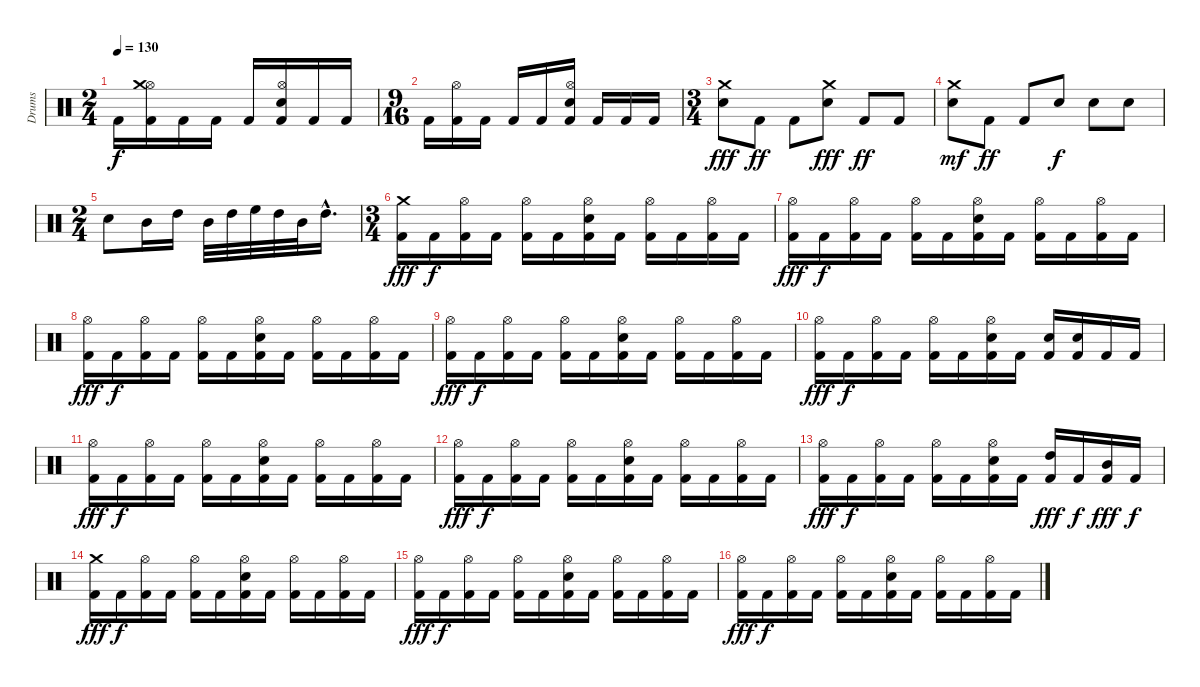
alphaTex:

\track ("Drums" "Drums") {instrument percussion}
\staff {score}
\articulation defaults
\ts (2 4)
\tempo 130
\clef neutral
\ks c "Kick (hit) 2".16{dy f}
("Kick (hit) 2" "Hi-Hat (open)" "Crash medium (hit)").16 "Kick (hit) 2".16 "Kick (hit) 2".16 "Kick (hit) 2".16 ("Kick (hit) 2" "Electric Snare (hit)" "Hi-Hat (open)").16 "Kick (hit) 2".16 "Kick (hit) 2".16 |
\ts (9 16)
"Kick (hit) 2".16 ("Kick (hit) 2" "Hi-Hat (open)").16 "Kick (hit) 2".16 "Kick (hit) 2".16 "Kick (hit) 2".16 ("Kick (hit) 2" "Electric Snare (hit)" "Hi-Hat (open)").16 "Kick (hit) 2".16 "Kick (hit) 2".16 "Kick (hit) 2".16 |
\ts (3 4)
("Crash medium (hit)" "Electric Snare (hit)").8{dy fff} "Kick (hit) 2".8{dy ff} "Kick (hit) 2".8 ("Electric Snare (hit)" "Crash medium (hit)").8{dy fff} "Kick (hit) 2".8{dy ff} "Kick (hit) 2".8 |
("Electric Snare (hit)" "Crash medium (hit)").8{dy mf} "Kick (hit) 2".8{dy ff} "Kick (hit) 2".8 "Electric Snare (hit)".8{dy f} "Electric Snare (hit)".8 "Electric Snare (hit)".8 |
\ts (2 4)
"Electric Snare (hit)".8 "Mid Tom (hit)".16 "High Tom (hit)".16 "Mid Tom (hit)".32 "High Tom (hit)".32 "High Floor Tom (hit)".32 "High Tom (hit)".32 "Mid Tom (hit)".32 "High Tom (hit)"{hac}.16{d} |
\ts (3 4)
("Kick (hit) 2" "Crash medium (hit)").16{dy fff} "Kick (hit) 2".16{dy f} ("Kick (hit) 2" "Hi-Hat (open)").16 "Kick (hit) 2".16 ("Kick (hit) 2" "Hi-Hat (open)").16 "Kick (hit) 2".16 ("Kick (hit) 2" "Electric Snare (hit)" "Hi-Hat (open)").16 "Kick (hit) 2".16 ("Kick (hit) 2" "Hi-Hat (open)").16 "Kick (hit) 2".16 ("Kick (hit) 2" "Hi-Hat (open)").16 "Kick (hit) 2".16 |
("Kick (hit) 2" "Hi-Hat (open)").16{dy fff} "Kick (hit) 2".16{dy f} ("Kick (hit) 2" "Hi-Hat (open)").16 "Kick (hit) 2".16 ("Kick (hit) 2" "Hi-Hat (open)").16 "Kick (hit) 2".16 ("Kick (hit) 2" "Electric Snare (hit)" "Hi-Hat (open)").16 "Kick (hit) 2".16 ("Kick (hit) 2" "Hi-Hat (open)").16 "Kick (hit) 2".16 ("Kick (hit) 2" "Hi-Hat (open)").16 "Kick (hit) 2".16 |
("Kick (hit) 2" "Hi-Hat (open)").16{dy fff} "Kick (hit) 2".16{dy f} ("Kick (hit) 2" "Hi-Hat (open)").16 "Kick (hit) 2".16 ("Kick (hit) 2" "Hi-Hat (open)").16 "Kick (hit) 2".16 ("Kick (hit) 2" "Electric Snare (hit)" "Hi-Hat (open)").16 "Kick (hit) 2".16 ("Kick (hit) 2" "Hi-Hat (open)").16 "Kick (hit) 2".16 ("Kick (hit) 2" "Hi-Hat (open)").16 "Kick (hit) 2".16 |
("Kick (hit) 2" "Hi-Hat (open)").16{dy fff} "Kick (hit) 2".16{dy f} ("Kick (hit) 2" "Hi-Hat (open)").16 "Kick (hit) 2".16 ("Kick (hit) 2" "Hi-Hat (open)").16 "Kick (hit) 2".16 ("Kick (hit) 2" "Electric Snare (hit)" "Hi-Hat (open)").16 "Kick (hit) 2".16 ("Kick (hit) 2" "Hi-Hat (open)").16 "Kick (hit) 2".16 ("Kick (hit) 2" "Hi-Hat (open)").16 "Kick (hit) 2".16 |
("Kick (hit) 2" "Hi-Hat (open)").16{dy fff} "Kick (hit) 2".16{dy f} ("Kick (hit) 2" "Hi-Hat (open)").16 "Kick (hit) 2".16 ("Kick (hit) 2" "Hi-Hat (open)").16 "Kick (hit) 2".16 ("Kick (hit) 2" "Electric Snare (hit)" "Hi-Hat (open)").16 "Kick (hit) 2".16 ("Kick (hit) 2" "Electric Snare (hit)").16 ("Kick (hit) 2" "Electric Snare (hit)").16 "Kick (hit) 2".16 "Kick (hit) 2".16 |
("Kick (hit) 2" "Hi-Hat (open)").16{dy fff} "Kick (hit) 2".16{dy f} ("Kick (hit) 2" "Hi-Hat (open)").16 "Kick (hit) 2".16 ("Kick (hit) 2" "Hi-Hat (open)").16 "Kick (hit) 2".16 ("Kick (hit) 2" "Electric Snare (hit)" "Hi-Hat (open)").16 "Kick (hit) 2".16 ("Kick (hit) 2" "Hi-Hat (open)").16 "Kick (hit) 2".16 ("Kick (hit) 2" "Hi-Hat (open)").16 "Kick (hit) 2".16 |
("Kick (hit) 2" "Hi-Hat (open)").16{dy fff} "Kick (hit) 2".16{dy f} ("Kick (hit) 2" "Hi-Hat (open)").16 "Kick (hit) 2".16 ("Kick (hit) 2" "Hi-Hat (open)").16 "Kick (hit) 2".16 ("Kick (hit) 2" "Electric Snare (hit)" "Hi-Hat (open)").16 "Kick (hit) 2".16 ("Kick (hit) 2" "Hi-Hat (open)").16 "Kick (hit) 2".16 ("Kick (hit) 2" "Hi-Hat (open)").16 "Kick (hit) 2".16 |
("Kick (hit) 2" "Hi-Hat (open)").16{dy fff} "Kick (hit) 2".16{dy f} ("Kick (hit) 2" "Hi-Hat (open)").16 "Kick (hit) 2".16 ("Kick (hit) 2" "Hi-Hat (open)").16 "Kick (hit) 2".16 ("Kick (hit) 2" "Electric Snare (hit)" "Hi-Hat (open)").16 "Kick (hit) 2".16 ("Kick (hit) 2" "High Tom (hit)").16{dy fff} "Kick (hit) 2".16{dy f} ("Kick (hit) 2" "Mid Tom (hit)").16{dy fff} "Kick (hit) 2".16{dy f} |
("Kick (hit) 2" "Crash medium (hit)").16{dy fff} "Kick (hit) 2".16{dy f} ("Kick (hit) 2" "Hi-Hat (open)").16 "Kick (hit) 2".16 ("Kick (hit) 2" "Hi-Hat (open)").16 "Kick (hit) 2".16 ("Kick (hit) 2" "Electric Snare (hit)" "Hi-Hat (open)").16 "Kick (hit) 2".16 ("Kick (hit) 2" "Hi-Hat (open)").16 "Kick (hit) 2".16 ("Kick (hit) 2" "Hi-Hat (open)").16 "Kick (hit) 2".16 |
("Kick (hit) 2" "Hi-Hat (open)").16{dy fff} "Kick (hit) 2".16{dy f} ("Kick (hit) 2" "Hi-Hat (open)").16 "Kick (hit) 2".16 ("Kick (hit) 2" "Hi-Hat (open)").16 "Kick (hit) 2".16 ("Kick (hit) 2" "Electric Snare (hit)" "Hi-Hat (open)").16 "Kick (hit) 2".16 ("Kick (hit) 2" "Hi-Hat (open)").16 "Kick (hit) 2".16 ("Kick (hit) 2" "Hi-Hat (open)").16 "Kick (hit) 2".16 |
("Kick (hit) 2" "Hi-Hat (open)").16{dy fff} "Kick (hit) 2".16{dy f} ("Kick (hit) 2" "Hi-Hat (open)").16 "Kick (hit) 2".16 ("Kick (hit) 2" "Hi-Hat (open)").16 "Kick (hit) 2".16 ("Kick (hit) 2" "Electric Snare (hit)" "Hi-Hat (open)").16 "Kick (hit) 2".16 ("Kick (hit) 2" "Hi-Hat (open)").16 "Kick (hit) 2".16 ("Kick (hit) 2" "Hi-Hat (open)").16 "Kick (hit) 2".16
